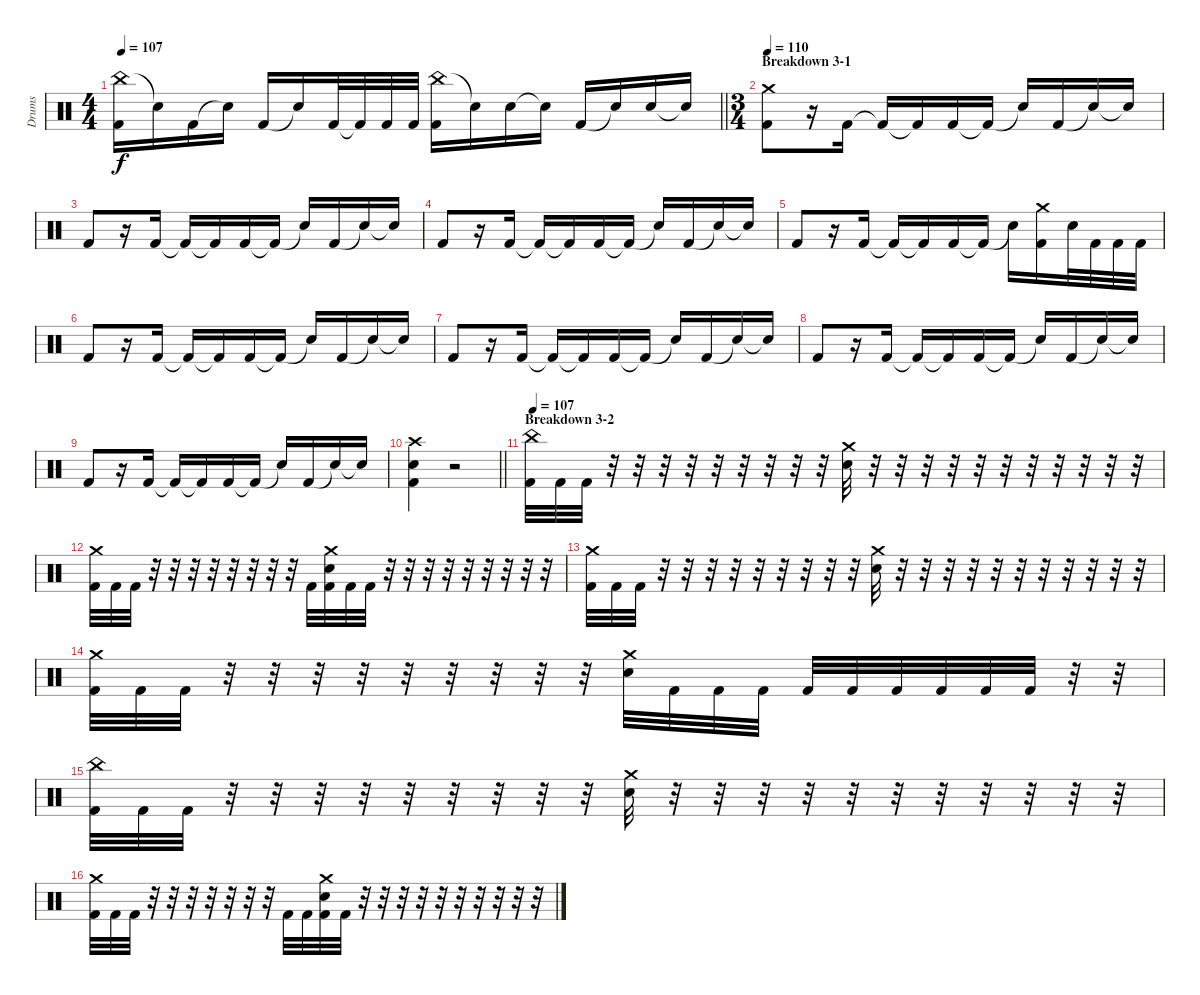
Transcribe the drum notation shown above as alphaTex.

\track ("Drums" "Drums") {instrument percussion}
\staff {score}
\articulation defaults
\ts (4 4)
\tempo 107
\clef neutral
\barLineRight lightlight
\ks c
("China (hit)" "Kick (hit) 2").16{dy f} "Snare (hit)"{t}.16 "Kick (hit) 2".16 "Snare (hit)"{t}.16 "Kick (hit) 2".16 "Snare (hit)"{t}.16 "Kick (hit) 2".32 "Kick (hit) 2"{t}.32 "Kick (hit) 2".32 "Kick (hit) 2".32 ("China (hit)" "Kick (hit) 2").16 "Snare (hit)"{t}.16 "Electric Snare (hit)".16 "Snare (hit)"{t}.16 "Kick (hit) 2".16 "Snare (hit)"{t}.16 "Electric Snare (hit)".16 "Snare (hit)"{t}.16 |
\ts (3 4)
\section ("" "Breakdown 3-1")
\tempo 110
("Crash medium (hit)" "Kick (hit) 2").8 r.16 "Kick (hit) 2".16 "Kick (hit) 2"{t}.16 "Kick (hit) 2"{t}.16 "Kick (hit) 2".16 "Kick (hit) 2"{t}.16 "Snare (hit)"{t}.16 "Kick (hit) 2".16 "Snare (hit)"{t}.16 "Snare (hit)"{t}.16 |
"Kick (hit) 2".8 r.16 "Kick (hit) 2".16 "Kick (hit) 2"{t}.16 "Kick (hit) 2"{t}.16 "Kick (hit) 2".16 "Kick (hit) 2"{t}.16 "Snare (hit)"{t}.16 "Kick (hit) 2".16 "Snare (hit)"{t}.16 "Snare (hit)"{t}.16 |
"Kick (hit) 2".8 r.16 "Kick (hit) 2".16 "Kick (hit) 2"{t}.16 "Kick (hit) 2"{t}.16 "Kick (hit) 2".16 "Kick (hit) 2"{t}.16 "Snare (hit)"{t}.16 "Kick (hit) 2".16 "Snare (hit)"{t}.16 "Snare (hit)"{t}.16 |
"Kick (hit) 2".8 r.16 "Kick (hit) 2".16 "Kick (hit) 2"{t}.16 "Kick (hit) 2"{t}.16 "Kick (hit) 2".16 "Kick (hit) 2"{t}.16 "Snare (hit)"{t}.16 ("Crash medium (hit)" "Kick (hit) 2").16 "Electric Snare (hit)".32 "Kick (hit) 2".32 "Kick (hit) 2".32 "Kick (hit) 2".32 |
"Kick (hit) 2".8 r.16 "Kick (hit) 2".16 "Kick (hit) 2"{t}.16 "Kick (hit) 2"{t}.16 "Kick (hit) 2".16 "Kick (hit) 2"{t}.16 "Snare (hit)"{t}.16 "Kick (hit) 2".16 "Snare (hit)"{t}.16 "Snare (hit)"{t}.16 |
"Kick (hit) 2".8 r.16 "Kick (hit) 2".16 "Kick (hit) 2"{t}.16 "Kick (hit) 2"{t}.16 "Kick (hit) 2".16 "Kick (hit) 2"{t}.16 "Snare (hit)"{t}.16 "Kick (hit) 2".16 "Snare (hit)"{t}.16 "Snare (hit)"{t}.16 |
"Kick (hit) 2".8 r.16 "Kick (hit) 2".16 "Kick (hit) 2"{t}.16 "Kick (hit) 2"{t}.16 "Kick (hit) 2".16 "Kick (hit) 2"{t}.16 "Snare (hit)"{t}.16 "Kick (hit) 2".16 "Snare (hit)"{t}.16 "Snare (hit)"{t}.16 |
"Kick (hit) 2".8 r.16 "Kick (hit) 2".16 "Kick (hit) 2"{t}.16 "Kick (hit) 2"{t}.16 "Kick (hit) 2".16 "Kick (hit) 2"{t}.16 "Snare (hit)"{t}.16 "Kick (hit) 2".16 "Snare (hit)"{t}.16 "Snare (hit)"{t}.16 |
\barLineRight lightlight
("Electric Snare (hit)" "Crash high (hit)" "Kick (hit) 2").4 r.2 |
\section ("" "Breakdown 3-2")
\tempo 107
("China (hit)" "Kick (hit) 2").32 "Kick (hit) 2".32 "Kick (hit) 2".32 r.32 r.32 r.32 r.32 r.32 r.32 r.32 r.32 r.32 ("Crash medium (hit)" "Electric Snare (hit)").32 r.32 r.32 r.32 r.32 r.32 r.32 r.32 r.32 r.32 r.32 r.32 |
("Crash medium (hit)" "Kick (hit) 2").32 "Kick (hit) 2".32 "Kick (hit) 2".32 r.32 r.32 r.32 r.32 r.32 r.32 r.32 r.32 "Kick (hit) 2".32 ("Crash medium (hit)" "Electric Snare (hit)" "Kick (hit) 2").32 "Kick (hit) 2".32 "Kick (hit) 2".32 r.32 r.32 r.32 r.32 r.32 r.32 r.32 r.32 r.32 |
("Crash medium (hit)" "Kick (hit) 2").32 "Kick (hit) 2".32 "Kick (hit) 2".32 r.32 r.32 r.32 r.32 r.32 r.32 r.32 r.32 r.32 ("Crash medium (hit)" "Electric Snare (hit)").32 r.32 r.32 r.32 r.32 r.32 r.32 r.32 r.32 r.32 r.32 r.32 |
("Crash medium (hit)" "Kick (hit) 2").32 "Kick (hit) 2".32 "Kick (hit) 2".32 r.32 r.32 r.32 r.32 r.32 r.32 r.32 r.32 r.32 ("Crash medium (hit)" "Electric Snare (hit)").32 "Kick (hit) 2".32 "Kick (hit) 2".32 "Kick (hit) 2".32 "Kick (hit) 2".32 "Kick (hit) 2".32 "Kick (hit) 2".32 "Kick (hit) 2".32 "Kick (hit) 2".32 "Kick (hit) 2".32 r.32 r.32 |
("China (hit)" "Kick (hit) 2").32 "Kick (hit) 2".32 "Kick (hit) 2".32 r.32 r.32 r.32 r.32 r.32 r.32 r.32 r.32 r.32 ("Crash medium (hit)" "Electric Snare (hit)").32 r.32 r.32 r.32 r.32 r.32 r.32 r.32 r.32 r.32 r.32 r.32 |
("Crash medium (hit)" "Kick (hit) 2").32 "Kick (hit) 2".32 "Kick (hit) 2".32 r.32 r.32 r.32 r.32 r.32 r.32 r.32 "Kick (hit) 2".32 "Kick (hit) 2".32 ("Crash medium (hit)" "Electric Snare (hit)" "Kick (hit) 2").32 "Kick (hit) 2".32 r.32 r.32 r.32 r.32 r.32 r.32 r.32 r.32 r.32 r.32
